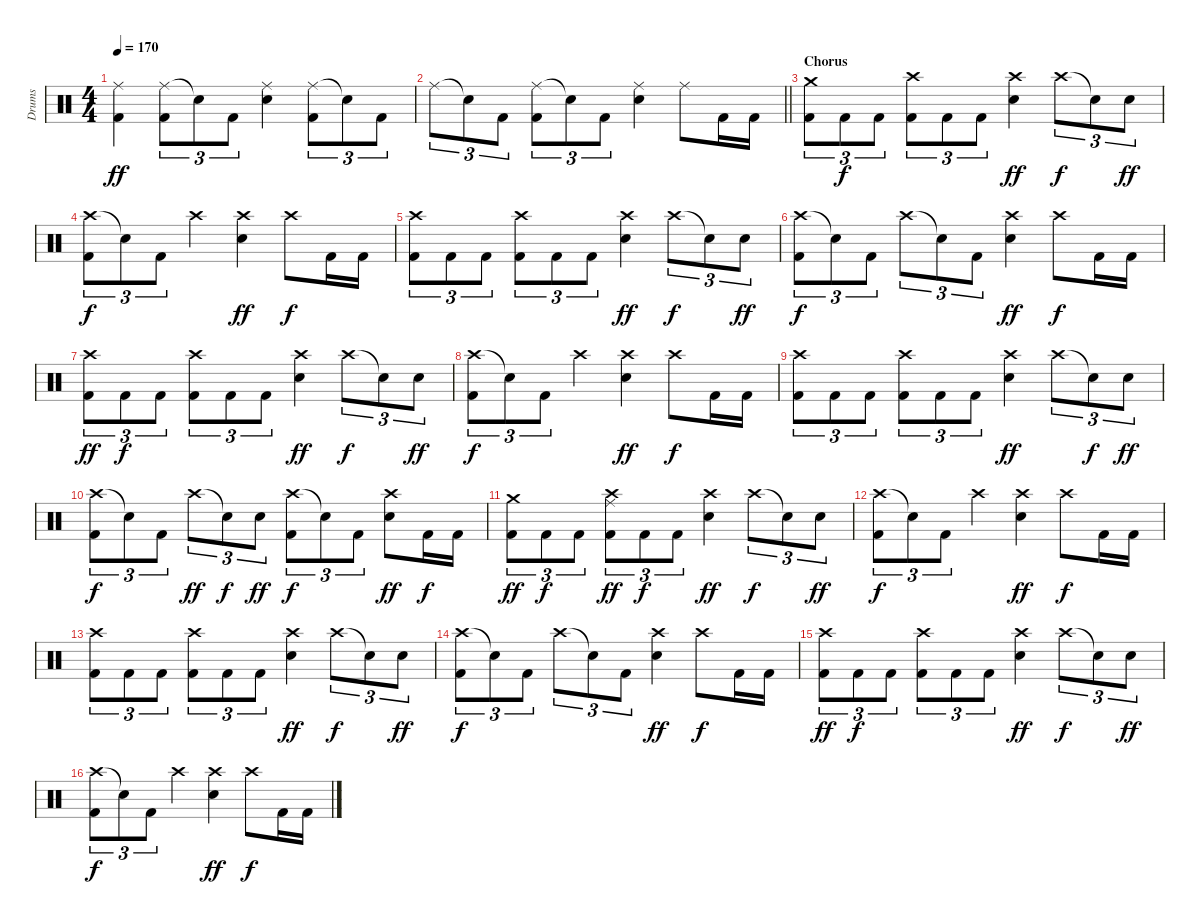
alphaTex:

\track ("Drums" "Drums") {instrument percussion}
\staff {score}
\articulation defaults
\ts (4 4)
\tempo 170
\clef neutral
\ks c
("Ride (middle)" "Kick (hit) 2").4{dy ff} ("Ride (middle)" "Kick (hit) 2").8{tu (3 2)} "Snare (hit)"{t}.8{tu (3 2)} "Kick (hit) 2".8{tu (3 2)} ("Ride (middle)" "Snare (hit) 2").4 ("Ride (middle)" "Kick (hit) 2").8{tu (3 2)} "Snare (hit)"{t}.8{tu (3 2)} "Kick (hit) 2".8{tu (3 2)} |
\barLineRight lightlight "Ride (middle)".8{tu (3 2)} "Snare (hit)"{t}.8{tu (3 2)} "Kick (hit) 2".8{tu (3 2)}
("Ride (middle)" "Kick (hit) 2").8{tu (3 2)} "Snare (hit)"{t}.8{tu (3 2)} "Kick (hit) 2".8{tu (3 2)} ("Ride (middle)" "Snare (hit) 2").4 "Ride (middle)".8 "Kick (hit) 2".16 "Kick (hit) 2".16 |
\section ("" "Chorus")
("Crash medium (hit)" "Kick (hit) 2").8{tu (3 2)} "Kick (hit) 2".8{tu (3 2) dy f} "Kick (hit) 2".8{tu (3 2)} ("Crash high (hit)" "Kick (hit) 2").8{tu (3 2)} "Kick (hit) 2".8{tu (3 2)} "Kick (hit) 2".8{tu (3 2)} ("Crash high (hit)" "Snare (hit) 2").4{dy ff} "Crash high (hit)".8{tu (3 2) dy f} "Snare (hit)"{t}.8{tu (3 2)} "Snare (hit) 2".8{tu (3 2) dy ff} |
("Crash high (hit)" "Kick (hit) 2").8{tu (3 2) dy f} "Snare (hit)"{t}.8{tu (3 2)} "Kick (hit) 2".8{tu (3 2)} "Crash high (hit)".4 ("Crash high (hit)" "Snare (hit) 2").4{dy ff} "Crash high (hit)".8{dy f} "Kick (hit) 2".16 "Kick (hit) 2".16 |
("Crash high (hit)" "Kick (hit) 2").8{tu (3 2)} "Kick (hit) 2".8{tu (3 2)} "Kick (hit) 2".8{tu (3 2)} ("Crash high (hit)" "Kick (hit) 2").8{tu (3 2)} "Kick (hit) 2".8{tu (3 2)} "Kick (hit) 2".8{tu (3 2)} ("Crash high (hit)" "Snare (hit) 2").4{dy ff} "Crash high (hit)".8{tu (3 2) dy f} "Snare (hit)"{t}.8{tu (3 2)} "Snare (hit) 2".8{tu (3 2) dy ff} |
("Crash high (hit)" "Kick (hit) 2").8{tu (3 2) dy f} "Snare (hit)"{t}.8{tu (3 2)} "Kick (hit) 2".8{tu (3 2)} "Crash high (hit)".8{tu (3 2)} "Snare (hit)"{t}.8{tu (3 2)} "Kick (hit) 2".8{tu (3 2)} ("Crash high (hit)" "Snare (hit) 2").4{dy ff} "Crash high (hit)".8{dy f} "Kick (hit) 2".16 "Kick (hit) 2".16 |
("Crash high (hit)" "Kick (hit) 2").8{tu (3 2) dy ff} "Kick (hit) 2".8{tu (3 2) dy f} "Kick (hit) 2".8{tu (3 2)} ("Crash high (hit)" "Kick (hit) 2").8{tu (3 2)} "Kick (hit) 2".8{tu (3 2)} "Kick (hit) 2".8{tu (3 2)} ("Crash high (hit)" "Snare (hit) 2").4{dy ff} "Crash high (hit)".8{tu (3 2) dy f} "Snare (hit)"{t}.8{tu (3 2)} "Snare (hit) 2".8{tu (3 2) dy ff} |
("Crash high (hit)" "Kick (hit) 2").8{tu (3 2) dy f} "Snare (hit)"{t}.8{tu (3 2)} "Kick (hit) 2".8{tu (3 2)} "Crash high (hit)".4 ("Crash high (hit)" "Snare (hit) 2").4{dy ff} "Crash high (hit)".8{dy f} "Kick (hit) 2".16 "Kick (hit) 2".16 |
("Crash high (hit)" "Kick (hit) 2").8{tu (3 2)} "Kick (hit) 2".8{tu (3 2)} "Kick (hit) 2".8{tu (3 2)} ("Crash high (hit)" "Kick (hit) 2").8{tu (3 2)} "Kick (hit) 2".8{tu (3 2)} "Kick (hit) 2".8{tu (3 2)} ("Crash high (hit)" "Snare (hit) 2").4{dy ff} "Crash high (hit)".8{tu (3 2)} "Snare (hit)"{t}.8{tu (3 2) dy f} "Snare (hit) 2".8{tu (3 2) dy ff} |
("Crash high (hit)" "Kick (hit) 2").8{tu (3 2) dy f} "Snare (hit)"{t}.8{tu (3 2)} "Kick (hit) 2".8{tu (3 2)} "Crash high (hit)".8{tu (3 2) dy ff} "Snare (hit)"{t}.8{tu (3 2) dy f} "Snare (hit) 2".8{tu (3 2) dy ff} ("Crash high (hit)" "Kick (hit) 2").8{tu (3 2) dy f} "Snare (hit)"{t}.8{tu (3 2)} "Kick (hit) 2".8{tu (3 2)} ("Crash high (hit)" "Snare (hit) 2").8{dy ff} "Kick (hit) 2".16{dy f} "Kick (hit) 2".16 |
("Crash medium (hit)" "Kick (hit) 2").8{tu (3 2) dy ff} "Kick (hit) 2".8{tu (3 2) dy f} "Kick (hit) 2".8{tu (3 2)} ("Crash high (hit)" "Ride (middle)" "Kick (hit) 2").8{tu (3 2) dy ff} "Kick (hit) 2".8{tu (3 2) dy f} "Kick (hit) 2".8{tu (3 2)} ("Crash high (hit)" "Snare (hit) 2").4{dy ff} "Crash high (hit)".8{tu (3 2) dy f} "Snare (hit)"{t}.8{tu (3 2)} "Snare (hit) 2".8{tu (3 2) dy ff} |
("Crash high (hit)" "Kick (hit) 2").8{tu (3 2) dy f} "Snare (hit)"{t}.8{tu (3 2)} "Kick (hit) 2".8{tu (3 2)} "Crash high (hit)".4 ("Crash high (hit)" "Snare (hit) 2").4{dy ff} "Crash high (hit)".8{dy f} "Kick (hit) 2".16 "Kick (hit) 2".16 |
("Crash high (hit)" "Kick (hit) 2").8{tu (3 2)} "Kick (hit) 2".8{tu (3 2)} "Kick (hit) 2".8{tu (3 2)} ("Crash high (hit)" "Kick (hit) 2").8{tu (3 2)} "Kick (hit) 2".8{tu (3 2)} "Kick (hit) 2".8{tu (3 2)} ("Crash high (hit)" "Snare (hit) 2").4{dy ff} "Crash high (hit)".8{tu (3 2) dy f} "Snare (hit)"{t}.8{tu (3 2)} "Snare (hit) 2".8{tu (3 2) dy ff} |
("Crash high (hit)" "Kick (hit) 2").8{tu (3 2) dy f} "Snare (hit)"{t}.8{tu (3 2)} "Kick (hit) 2".8{tu (3 2)} "Crash high (hit)".8{tu (3 2)} "Snare (hit)"{t}.8{tu (3 2)} "Kick (hit) 2".8{tu (3 2)} ("Crash high (hit)" "Snare (hit) 2").4{dy ff} "Crash high (hit)".8{dy f} "Kick (hit) 2".16 "Kick (hit) 2".16 |
("Crash high (hit)" "Kick (hit) 2").8{tu (3 2) dy ff} "Kick (hit) 2".8{tu (3 2) dy f} "Kick (hit) 2".8{tu (3 2)} ("Crash high (hit)" "Kick (hit) 2").8{tu (3 2)} "Kick (hit) 2".8{tu (3 2)} "Kick (hit) 2".8{tu (3 2)} ("Crash high (hit)" "Snare (hit) 2").4{dy ff} "Crash high (hit)".8{tu (3 2) dy f} "Snare (hit)"{t}.8{tu (3 2)} "Snare (hit) 2".8{tu (3 2) dy ff} |
("Crash high (hit)" "Kick (hit) 2").8{tu (3 2) dy f} "Snare (hit)"{t}.8{tu (3 2)} "Kick (hit) 2".8{tu (3 2)} "Crash high (hit)".4 ("Crash high (hit)" "Snare (hit) 2").4{dy ff} "Crash high (hit)".8{dy f} "Kick (hit) 2".16 "Kick (hit) 2".16
